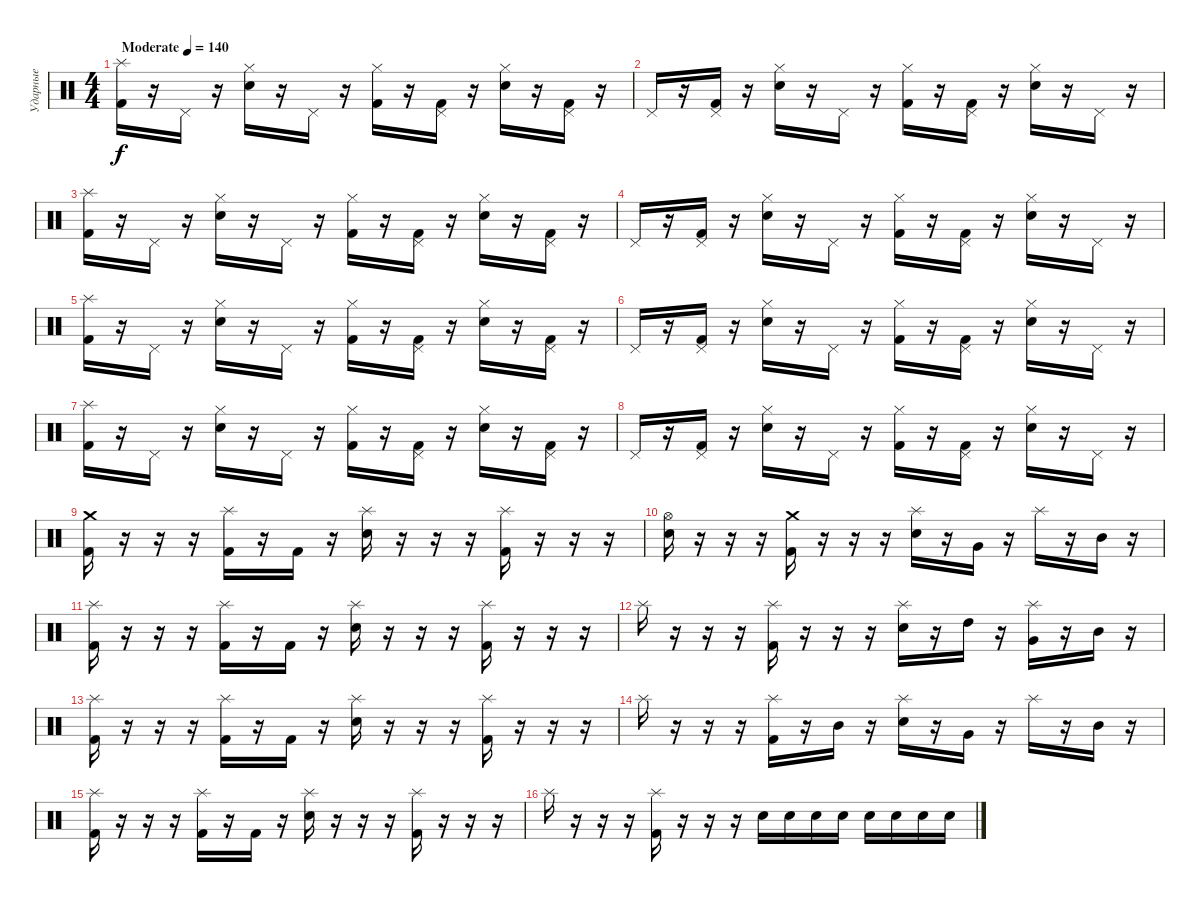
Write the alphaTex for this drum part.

\track ("Ударные" "Ударные") {instrument percussion bank 2}
\staff {score}
\articulation defaults
\ts (4 4)
\tempo (140 "Moderate")
\clef neutral
\ks c
("Splash (hit)" "Kick (hit) 2").16{dy f} r.16 "Pedal Hi-Hat (hit)".16 r.16 ("Hi-Hat (closed)" "Electric Snare (hit)").16 r.16 "Pedal Hi-Hat (hit)".16 r.16 ("Hi-Hat (closed)" "Kick (hit) 2").16 r.16 ("Pedal Hi-Hat (hit)" "Kick (hit) 2").16 r.16 ("Hi-Hat (closed)" "Electric Snare (hit)").16 r.16 ("Pedal Hi-Hat (hit)" "Kick (hit) 2").16 r.16 |
"Pedal Hi-Hat (hit)".16 r.16 ("Pedal Hi-Hat (hit)" "Kick (hit) 2").16 r.16 ("Hi-Hat (closed)" "Electric Snare (hit)").16 r.16 "Pedal Hi-Hat (hit)".16 r.16 ("Hi-Hat (closed)" "Kick (hit) 2").16 r.16 ("Pedal Hi-Hat (hit)" "Kick (hit) 2").16 r.16 ("Hi-Hat (closed)" "Electric Snare (hit)").16 r.16 "Pedal Hi-Hat (hit)".16 r.16 |
("Splash (hit)" "Kick (hit) 2").16 r.16 "Pedal Hi-Hat (hit)".16 r.16 ("Hi-Hat (closed)" "Electric Snare (hit)").16 r.16 "Pedal Hi-Hat (hit)".16 r.16 ("Hi-Hat (closed)" "Kick (hit) 2").16 r.16 ("Pedal Hi-Hat (hit)" "Kick (hit) 2").16 r.16 ("Hi-Hat (closed)" "Electric Snare (hit)").16 r.16 ("Pedal Hi-Hat (hit)" "Kick (hit) 2").16 r.16 |
"Pedal Hi-Hat (hit)".16 r.16 ("Pedal Hi-Hat (hit)" "Kick (hit) 2").16 r.16 ("Hi-Hat (closed)" "Electric Snare (hit)").16 r.16 "Pedal Hi-Hat (hit)".16 r.16 ("Hi-Hat (closed)" "Kick (hit) 2").16 r.16 ("Pedal Hi-Hat (hit)" "Kick (hit) 2").16 r.16 ("Hi-Hat (closed)" "Electric Snare (hit)").16 r.16 "Pedal Hi-Hat (hit)".16 r.16 |
("Splash (hit)" "Kick (hit) 2").16 r.16 "Pedal Hi-Hat (hit)".16 r.16 ("Hi-Hat (closed)" "Electric Snare (hit)").16 r.16 "Pedal Hi-Hat (hit)".16 r.16 ("Hi-Hat (closed)" "Kick (hit) 2").16 r.16 ("Pedal Hi-Hat (hit)" "Kick (hit) 2").16 r.16 ("Hi-Hat (closed)" "Electric Snare (hit)").16 r.16 ("Pedal Hi-Hat (hit)" "Kick (hit) 2").16 r.16 |
"Pedal Hi-Hat (hit)".16 r.16 ("Pedal Hi-Hat (hit)" "Kick (hit) 2").16 r.16 ("Hi-Hat (closed)" "Electric Snare (hit)").16 r.16 "Pedal Hi-Hat (hit)".16 r.16 ("Hi-Hat (closed)" "Kick (hit) 2").16 r.16 ("Pedal Hi-Hat (hit)" "Kick (hit) 2").16 r.16 ("Hi-Hat (closed)" "Electric Snare (hit)").16 r.16 "Pedal Hi-Hat (hit)".16 r.16 |
("Splash (hit)" "Kick (hit) 2").16 r.16 "Pedal Hi-Hat (hit)".16 r.16 ("Hi-Hat (closed)" "Electric Snare (hit)").16 r.16 "Pedal Hi-Hat (hit)".16 r.16 ("Hi-Hat (closed)" "Kick (hit) 2").16 r.16 ("Pedal Hi-Hat (hit)" "Kick (hit) 2").16 r.16 ("Hi-Hat (closed)" "Electric Snare (hit)").16 r.16 ("Pedal Hi-Hat (hit)" "Kick (hit) 2").16 r.16 |
"Pedal Hi-Hat (hit)".16 r.16 ("Pedal Hi-Hat (hit)" "Kick (hit) 2").16 r.16 ("Hi-Hat (closed)" "Electric Snare (hit)").16 r.16 "Pedal Hi-Hat (hit)".16 r.16 ("Hi-Hat (closed)" "Kick (hit) 2").16 r.16 ("Pedal Hi-Hat (hit)" "Kick (hit) 2").16 r.16 ("Hi-Hat (closed)" "Electric Snare (hit)").16 r.16 "Pedal Hi-Hat (hit)".16 r.16 |
("Crash medium (hit)" "Kick (hit) 2").16 r.16 r.16 r.16 ("Splash (hit)" "Kick (hit) 2").16 r.16 "Kick (hit) 2".16 r.16 ("Splash (hit)" "Electric Snare (hit)").16 r.16 r.16 r.16 ("Splash (hit)" "Kick (hit) 2").16 r.16 r.16 r.16 |
("Hi-Hat (open)" "Snare (hit)").16 r.16 r.16 r.16 ("Crash medium (hit)" "Kick (hit) 2").16 r.16 r.16 r.16 ("Splash (hit)" "Electric Snare (hit)").16 r.16 "Very Low Tom (hit)".16 r.16 "Splash (hit)".16 r.16 "Mid Tom (hit)".16 r.16 |
("Splash (hit)" "Kick (hit) 2").16 r.16 r.16 r.16 ("Splash (hit)" "Kick (hit) 2").16 r.16 "Kick (hit) 2".16 r.16 ("Splash (hit)" "Electric Snare (hit)").16 r.16 r.16 r.16 ("Splash (hit)" "Kick (hit) 2").16 r.16 r.16 r.16 |
"Splash (hit)".16 r.16 r.16 r.16 ("Splash (hit)" "Kick (hit) 2").16 r.16 r.16 r.16 ("Splash (hit)" "Electric Snare (hit)").16 r.16 "High Tom (hit)".16 r.16 ("Splash (hit)" "Very Low Tom (hit)").16 r.16 "Mid Tom (hit)".16 r.16 |
("Splash (hit)" "Kick (hit) 2").16 r.16 r.16 r.16 ("Splash (hit)" "Kick (hit) 2").16 r.16 "Kick (hit) 2".16 r.16 ("Splash (hit)" "Electric Snare (hit)").16 r.16 r.16 r.16 ("Splash (hit)" "Kick (hit) 2").16 r.16 r.16 r.16 |
"Splash (hit)".16 r.16 r.16 r.16 ("Splash (hit)" "Kick (hit) 2").16 r.16 "Mid Tom (hit)".16 r.16 ("Splash (hit)" "Electric Snare (hit)").16 r.16 "Very Low Tom (hit)".16 r.16 "Splash (hit)".16 r.16 "Mid Tom (hit)".16 r.16 |
("Splash (hit)" "Kick (hit) 2").16 r.16 r.16 r.16 ("Splash (hit)" "Kick (hit) 2").16 r.16 "Kick (hit) 2".16 r.16 ("Splash (hit)" "Electric Snare (hit)").16 r.16 r.16 r.16 ("Splash (hit)" "Kick (hit) 2").16 r.16 r.16 r.16 |
"Splash (hit)".16 r.16 r.16 r.16 ("Splash (hit)" "Kick (hit) 2").16 r.16 r.16 r.16 "Electric Snare (hit)".16 "Snare (hit) 2".16 "Electric Snare (hit)".16 "Snare (hit) 2".16 "Electric Snare (hit)".16 "Snare (hit) 2".16 "Electric Snare (hit)".16 "Snare (hit) 2".16
